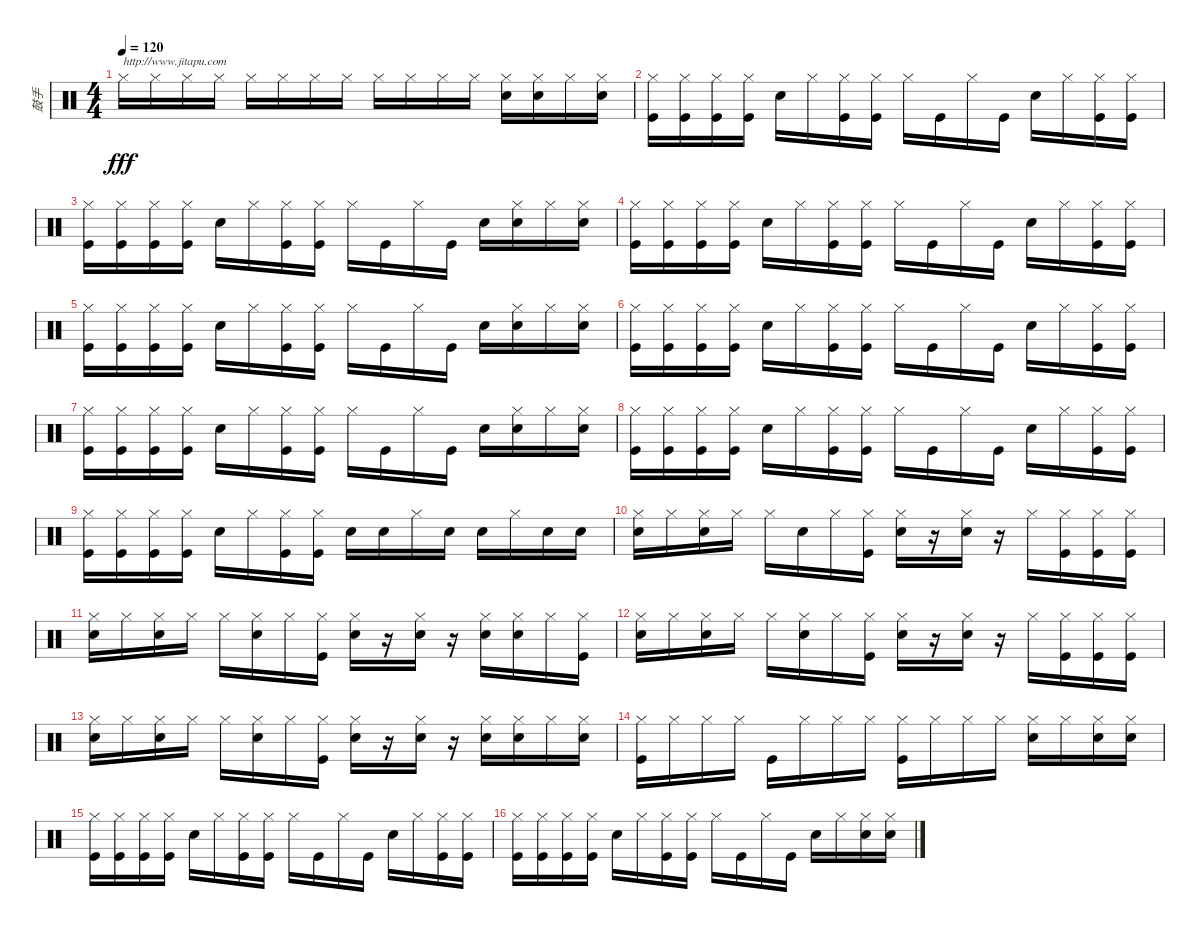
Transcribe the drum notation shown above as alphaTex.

\track ("鼓手" "鼓手") {instrument percussion}
\staff {score}
\articulation defaults
\ts (4 4)
\tempo 120
\clef neutral
\ks c "Hi-Hat (closed)".16{txt "http://www.jitapu.com" dy fff} "Hi-Hat (closed)".16 "Hi-Hat (closed)".16 "Hi-Hat (closed)".16 "Hi-Hat (closed)".16 "Hi-Hat (closed)".16 "Hi-Hat (closed)".16 "Hi-Hat (closed)".16 "Hi-Hat (closed)".16 "Hi-Hat (closed)".16 "Hi-Hat (closed)".16 "Hi-Hat (closed)".16
("Snare (hit) 2" "Hi-Hat (closed)").16 ("Snare (hit) 2" "Hi-Hat (closed)").16 "Hi-Hat (closed)".16 ("Snare (hit) 2" "Hi-Hat (closed)").16 |
("Kick (hit)" "Hi-Hat (closed)").16 ("Kick (hit)" "Hi-Hat (closed)").16 ("Kick (hit)" "Hi-Hat (closed)").16 ("Kick (hit)" "Hi-Hat (closed)").16 "Snare (hit) 2".16 "Hi-Hat (closed)".16 ("Kick (hit)" "Hi-Hat (closed)").16 ("Kick (hit)" "Hi-Hat (closed)").16 "Hi-Hat (closed)".16 "Kick (hit)".16 "Hi-Hat (closed)".16 "Kick (hit)".16 "Snare (hit) 2".16 "Hi-Hat (closed)".16 ("Kick (hit)" "Hi-Hat (closed)").16 ("Kick (hit)" "Hi-Hat (closed)").16 |
("Kick (hit)" "Hi-Hat (closed)").16 ("Kick (hit)" "Hi-Hat (closed)").16 ("Kick (hit)" "Hi-Hat (closed)").16 ("Kick (hit)" "Hi-Hat (closed)").16 "Snare (hit) 2".16 "Hi-Hat (closed)".16 ("Kick (hit)" "Hi-Hat (closed)").16 ("Kick (hit)" "Hi-Hat (closed)").16 "Hi-Hat (closed)".16 "Kick (hit)".16 "Hi-Hat (closed)".16 "Kick (hit)".16 "Snare (hit) 2".16 ("Snare (hit) 2" "Hi-Hat (closed)").16 "Hi-Hat (closed)".16 ("Snare (hit) 2" "Hi-Hat (closed)").16 |
("Kick (hit)" "Hi-Hat (closed)").16 ("Kick (hit)" "Hi-Hat (closed)").16 ("Kick (hit)" "Hi-Hat (closed)").16 ("Kick (hit)" "Hi-Hat (closed)").16 "Snare (hit) 2".16 "Hi-Hat (closed)".16 ("Kick (hit)" "Hi-Hat (closed)").16 ("Kick (hit)" "Hi-Hat (closed)").16 "Hi-Hat (closed)".16 "Kick (hit)".16 "Hi-Hat (closed)".16 "Kick (hit)".16 "Snare (hit) 2".16 "Hi-Hat (closed)".16 ("Kick (hit)" "Hi-Hat (closed)").16 ("Kick (hit)" "Hi-Hat (closed)").16 |
("Kick (hit)" "Hi-Hat (closed)").16 ("Kick (hit)" "Hi-Hat (closed)").16 ("Kick (hit)" "Hi-Hat (closed)").16 ("Kick (hit)" "Hi-Hat (closed)").16 "Snare (hit) 2".16 "Hi-Hat (closed)".16 ("Kick (hit)" "Hi-Hat (closed)").16 ("Kick (hit)" "Hi-Hat (closed)").16 "Hi-Hat (closed)".16 "Kick (hit)".16 "Hi-Hat (closed)".16 "Kick (hit)".16 "Snare (hit) 2".16 ("Snare (hit) 2" "Hi-Hat (closed)").16 "Hi-Hat (closed)".16 ("Snare (hit) 2" "Hi-Hat (closed)").16 |
("Kick (hit)" "Hi-Hat (closed)").16 ("Kick (hit)" "Hi-Hat (closed)").16 ("Kick (hit)" "Hi-Hat (closed)").16 ("Kick (hit)" "Hi-Hat (closed)").16 "Snare (hit) 2".16 "Hi-Hat (closed)".16 ("Kick (hit)" "Hi-Hat (closed)").16 ("Kick (hit)" "Hi-Hat (closed)").16 "Hi-Hat (closed)".16 "Kick (hit)".16 "Hi-Hat (closed)".16 "Kick (hit)".16 "Snare (hit) 2".16 "Hi-Hat (closed)".16 ("Kick (hit)" "Hi-Hat (closed)").16 ("Kick (hit)" "Hi-Hat (closed)").16 |
("Kick (hit)" "Hi-Hat (closed)").16 ("Kick (hit)" "Hi-Hat (closed)").16 ("Kick (hit)" "Hi-Hat (closed)").16 ("Kick (hit)" "Hi-Hat (closed)").16 "Snare (hit) 2".16 "Hi-Hat (closed)".16 ("Kick (hit)" "Hi-Hat (closed)").16 ("Kick (hit)" "Hi-Hat (closed)").16 "Hi-Hat (closed)".16 "Kick (hit)".16 "Hi-Hat (closed)".16 "Kick (hit)".16 "Snare (hit) 2".16 ("Snare (hit) 2" "Hi-Hat (closed)").16 "Hi-Hat (closed)".16 ("Snare (hit) 2" "Hi-Hat (closed)").16 |
("Kick (hit)" "Hi-Hat (closed)").16 ("Kick (hit)" "Hi-Hat (closed)").16 ("Kick (hit)" "Hi-Hat (closed)").16 ("Kick (hit)" "Hi-Hat (closed)").16 "Snare (hit) 2".16 "Hi-Hat (closed)".16 ("Kick (hit)" "Hi-Hat (closed)").16 ("Kick (hit)" "Hi-Hat (closed)").16 "Hi-Hat (closed)".16 "Kick (hit)".16 "Hi-Hat (closed)".16 "Kick (hit)".16 "Snare (hit) 2".16 "Hi-Hat (closed)".16 ("Kick (hit)" "Hi-Hat (closed)").16 ("Kick (hit)" "Hi-Hat (closed)").16 |
("Kick (hit)" "Hi-Hat (closed)").16 ("Kick (hit)" "Hi-Hat (closed)").16 ("Kick (hit)" "Hi-Hat (closed)").16 ("Kick (hit)" "Hi-Hat (closed)").16 "Snare (hit) 2".16 "Hi-Hat (closed)".16 ("Kick (hit)" "Hi-Hat (closed)").16 ("Kick (hit)" "Hi-Hat (closed)").16 "Snare (hit) 2".16 "Snare (hit) 2".16 "Hi-Hat (closed)".16 "Snare (hit) 2".16 "Snare (hit) 2".16 "Hi-Hat (closed)".16 "Snare (hit) 2".16 "Snare (hit) 2".16 |
("Snare (hit) 2" "Hi-Hat (closed)").16 "Hi-Hat (closed)".16 ("Snare (hit) 2" "Hi-Hat (closed)").16 "Hi-Hat (closed)".16 "Hi-Hat (closed)".16 "Snare (hit) 2".16 "Hi-Hat (closed)".16 ("Kick (hit)" "Hi-Hat (closed)").16 ("Snare (hit) 2" "Hi-Hat (closed)").16 r.16 ("Snare (hit) 2" "Hi-Hat (closed)").16 r.16 "Hi-Hat (closed)".16 ("Kick (hit)" "Hi-Hat (closed)").16 ("Kick (hit)" "Hi-Hat (closed)").16 ("Kick (hit)" "Hi-Hat (closed)").16 |
("Snare (hit) 2" "Hi-Hat (closed)").16 "Hi-Hat (closed)".16 ("Snare (hit) 2" "Hi-Hat (closed)").16 "Hi-Hat (closed)".16 "Hi-Hat (closed)".16 ("Snare (hit) 2" "Hi-Hat (closed)").16 "Hi-Hat (closed)".16 ("Kick (hit)" "Hi-Hat (closed)").16 ("Snare (hit) 2" "Hi-Hat (closed)").16 r.16 ("Snare (hit) 2" "Hi-Hat (closed)").16 r.16 ("Snare (hit) 2" "Hi-Hat (closed)").16 ("Snare (hit) 2" "Hi-Hat (closed)").16 "Hi-Hat (closed)".16 ("Kick (hit)" "Hi-Hat (closed)").16 |
("Snare (hit) 2" "Hi-Hat (closed)").16 "Hi-Hat (closed)".16 ("Snare (hit) 2" "Hi-Hat (closed)").16 "Hi-Hat (closed)".16 "Hi-Hat (closed)".16 ("Snare (hit) 2" "Hi-Hat (closed)").16 "Hi-Hat (closed)".16 ("Kick (hit)" "Hi-Hat (closed)").16 ("Snare (hit) 2" "Hi-Hat (closed)").16 r.16 ("Snare (hit) 2" "Hi-Hat (closed)").16 r.16 "Hi-Hat (closed)".16 ("Kick (hit)" "Hi-Hat (closed)").16 ("Kick (hit)" "Hi-Hat (closed)").16 ("Kick (hit)" "Hi-Hat (closed)").16 |
("Snare (hit) 2" "Hi-Hat (closed)").16 "Hi-Hat (closed)".16 ("Snare (hit) 2" "Hi-Hat (closed)").16 "Hi-Hat (closed)".16 "Hi-Hat (closed)".16 ("Snare (hit) 2" "Hi-Hat (closed)").16 "Hi-Hat (closed)".16 ("Kick (hit)" "Hi-Hat (closed)").16 ("Snare (hit) 2" "Hi-Hat (closed)").16 r.16 ("Snare (hit) 2" "Hi-Hat (closed)").16 r.16 ("Snare (hit) 2" "Hi-Hat (closed)").16 ("Snare (hit) 2" "Hi-Hat (closed)").16 "Hi-Hat (closed)".16 ("Snare (hit) 2" "Hi-Hat (closed)").16 |
("Kick (hit)" "Hi-Hat (closed)").16 "Hi-Hat (closed)".16 "Hi-Hat (closed)".16 "Hi-Hat (closed)".16 "Kick (hit)".16 "Hi-Hat (closed)".16 "Hi-Hat (closed)".16 "Hi-Hat (closed)".16 ("Kick (hit)" "Hi-Hat (closed)").16 "Hi-Hat (closed)".16 "Hi-Hat (closed)".16 "Hi-Hat (closed)".16 ("Snare (hit) 2" "Hi-Hat (closed)").16 "Hi-Hat (closed)".16 ("Snare (hit) 2" "Hi-Hat (closed)").16 ("Snare (hit) 2" "Hi-Hat (closed)").16 |
("Kick (hit)" "Hi-Hat (closed)").16 ("Kick (hit)" "Hi-Hat (closed)").16 ("Kick (hit)" "Hi-Hat (closed)").16 ("Kick (hit)" "Hi-Hat (closed)").16 "Snare (hit) 2".16 "Hi-Hat (closed)".16 ("Kick (hit)" "Hi-Hat (closed)").16 ("Kick (hit)" "Hi-Hat (closed)").16 "Hi-Hat (closed)".16 "Kick (hit)".16 "Hi-Hat (closed)".16 "Kick (hit)".16 "Snare (hit) 2".16 "Hi-Hat (closed)".16 ("Kick (hit)" "Hi-Hat (closed)").16 ("Kick (hit)" "Hi-Hat (closed)").16 |
("Kick (hit)" "Hi-Hat (closed)").16 ("Kick (hit)" "Hi-Hat (closed)").16 ("Kick (hit)" "Hi-Hat (closed)").16 ("Kick (hit)" "Hi-Hat (closed)").16 "Snare (hit) 2".16 "Hi-Hat (closed)".16 ("Kick (hit)" "Hi-Hat (closed)").16 ("Kick (hit)" "Hi-Hat (closed)").16 "Hi-Hat (closed)".16 "Kick (hit)".16 "Hi-Hat (closed)".16 "Kick (hit)".16 "Snare (hit) 2".16 "Hi-Hat (closed)".16 ("Snare (hit) 2" "Hi-Hat (closed)").16 ("Snare (hit) 2" "Hi-Hat (closed)").16
